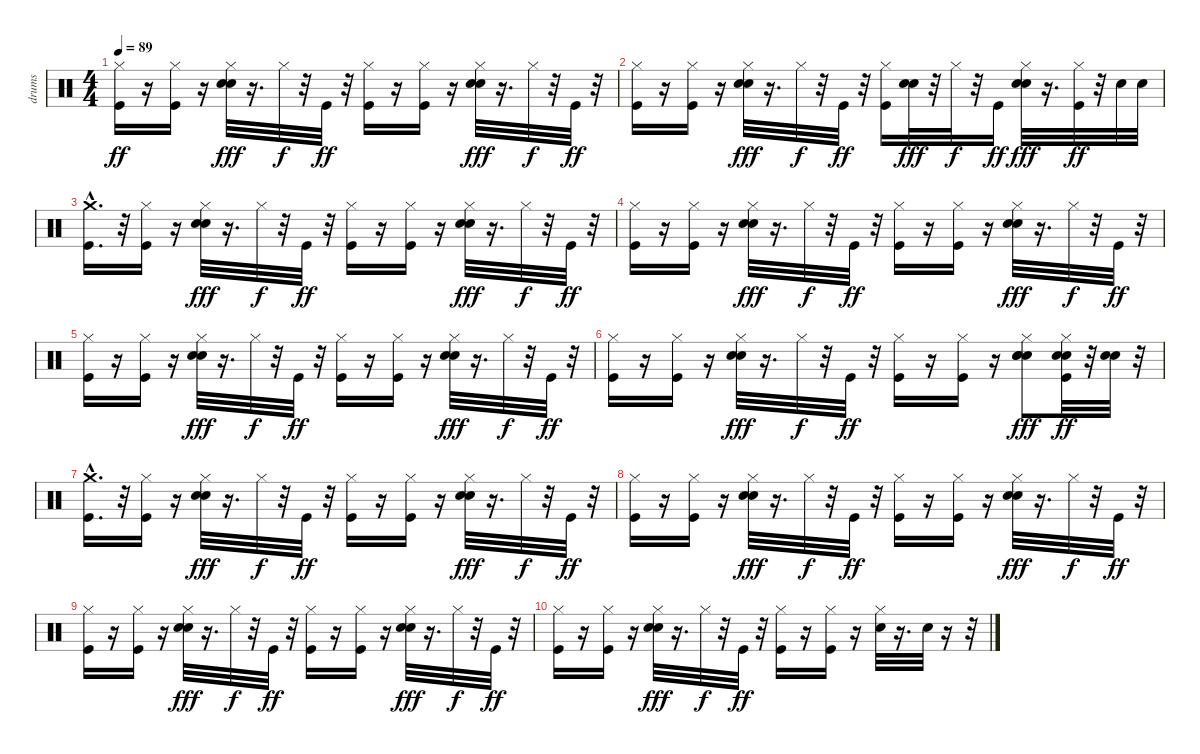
\track ("drums" "drums") {instrument percussion}
\staff {score}
\articulation defaults
\ts (4 4)
\tempo 89
\clef neutral
\ks c
("Kick (hit)" "Hi-Hat (closed)").16{dy ff} r.16 ("Hi-Hat (closed)" "Kick (hit)").16 r.16 ("Hi-Hat (closed)" "Electric Snare (hit)" "Hand Clap (hit)").32{dy fff} r.16{d} "Hi-Hat (closed)".32{dy f} r.32 "Kick (hit)".32{dy ff} r.32 ("Hi-Hat (closed)" "Kick (hit)").16 r.16 ("Hi-Hat (closed)" "Kick (hit)").16 r.16 ("Hi-Hat (closed)" "Electric Snare (hit)" "Hand Clap (hit)").32{dy fff} r.16{d} "Hi-Hat (closed)".32{dy f} r.32 "Kick (hit)".32{dy ff} r.32 |
("Kick (hit)" "Hi-Hat (closed)").16 r.16 ("Hi-Hat (closed)" "Kick (hit)").16 r.16 ("Hi-Hat (closed)" "Electric Snare (hit)" "Hand Clap (hit)").32{dy fff} r.16{d} "Hi-Hat (closed)".32{dy f} r.32 "Kick (hit)".32{dy ff} r.32 ("Hi-Hat (closed)" "Kick (hit)").16 ("Electric Snare (hit)" "Hand Clap (hit)").32{dy fff} r.32 "Hi-Hat (closed)".32{dy f} r.32 "Kick (hit)".16{dy ff} ("Hi-Hat (closed)" "Electric Snare (hit)" "Hand Clap (hit)").32{dy fff} r.16{d} ("Hi-Hat (closed)" "Kick (hit)").32{dy ff} r.32 "Hand Clap (hit)".32 "Hand Clap (hit)".32 |
("Crash medium (hit)"{hac} "Kick (hit)").16{d} r.32 ("Hi-Hat (closed)" "Kick (hit)").16 r.16 ("Hi-Hat (closed)" "Electric Snare (hit)" "Hand Clap (hit)").32{dy fff} r.16{d} "Hi-Hat (closed)".32{dy f} r.32 "Kick (hit)".32{dy ff} r.32 ("Hi-Hat (closed)" "Kick (hit)").16 r.16 ("Hi-Hat (closed)" "Kick (hit)").16 r.16 ("Hi-Hat (closed)" "Electric Snare (hit)" "Hand Clap (hit)").32{dy fff} r.16{d} "Hi-Hat (closed)".32{dy f} r.32 "Kick (hit)".32{dy ff} r.32 |
("Kick (hit)" "Hi-Hat (closed)").16 r.16 ("Hi-Hat (closed)" "Kick (hit)").16 r.16 ("Hi-Hat (closed)" "Electric Snare (hit)" "Hand Clap (hit)").32{dy fff} r.16{d} "Hi-Hat (closed)".32{dy f} r.32 "Kick (hit)".32{dy ff} r.32 ("Hi-Hat (closed)" "Kick (hit)").16 r.16 ("Hi-Hat (closed)" "Kick (hit)").16 r.16 ("Hi-Hat (closed)" "Electric Snare (hit)" "Hand Clap (hit)").32{dy fff} r.16{d} "Hi-Hat (closed)".32{dy f} r.32 "Kick (hit)".32{dy ff} r.32 |
("Kick (hit)" "Hi-Hat (closed)").16 r.16 ("Hi-Hat (closed)" "Kick (hit)").16 r.16 ("Hi-Hat (closed)" "Electric Snare (hit)" "Hand Clap (hit)").32{dy fff} r.16{d} "Hi-Hat (closed)".32{dy f} r.32 "Kick (hit)".32{dy ff} r.32 ("Hi-Hat (closed)" "Kick (hit)").16 r.16 ("Hi-Hat (closed)" "Kick (hit)").16 r.16 ("Hi-Hat (closed)" "Electric Snare (hit)" "Hand Clap (hit)").32{dy fff} r.16{d} "Hi-Hat (closed)".32{dy f} r.32 "Kick (hit)".32{dy ff} r.32 |
("Kick (hit)" "Hi-Hat (closed)").16 r.16 ("Hi-Hat (closed)" "Kick (hit)").16 r.16 ("Hi-Hat (closed)" "Electric Snare (hit)" "Hand Clap (hit)").32{dy fff} r.16{d} "Hi-Hat (closed)".32{dy f} r.32 "Kick (hit)".32{dy ff} r.32 ("Hi-Hat (closed)" "Kick (hit)").16 r.16 ("Hi-Hat (closed)" "Kick (hit)").16 r.16 ("Electric Snare (hit)" "Hi-Hat (closed)" "Hand Clap (hit)" "Electric Snare (hit)").8{dy fff} ("Hi-Hat (closed)" "Kick (hit)" "Hand Clap (hit)" "Electric Snare (hit)").32{dy ff} r.32 ("Hand Clap (hit)" "Electric Snare (hit)").32 r.32 |
("Crash medium (hit)"{hac} "Kick (hit)").16{d} r.32 ("Hi-Hat (closed)" "Kick (hit)").16 r.16 ("Hi-Hat (closed)" "Electric Snare (hit)" "Hand Clap (hit)").32{dy fff} r.16{d} "Hi-Hat (closed)".32{dy f} r.32 "Kick (hit)".32{dy ff} r.32 ("Hi-Hat (closed)" "Kick (hit)").16 r.16 ("Hi-Hat (closed)" "Kick (hit)").16 r.16 ("Hi-Hat (closed)" "Electric Snare (hit)" "Hand Clap (hit)").32{dy fff} r.16{d} "Hi-Hat (closed)".32{dy f} r.32 "Kick (hit)".32{dy ff} r.32 |
("Kick (hit)" "Hi-Hat (closed)").16 r.16 ("Hi-Hat (closed)" "Kick (hit)").16 r.16 ("Hi-Hat (closed)" "Electric Snare (hit)" "Hand Clap (hit)").32{dy fff} r.16{d} "Hi-Hat (closed)".32{dy f} r.32 "Kick (hit)".32{dy ff} r.32 ("Hi-Hat (closed)" "Kick (hit)").16 r.16 ("Hi-Hat (closed)" "Kick (hit)").16 r.16 ("Hi-Hat (closed)" "Electric Snare (hit)" "Hand Clap (hit)").32{dy fff} r.16{d} "Hi-Hat (closed)".32{dy f} r.32 "Kick (hit)".32{dy ff} r.32 |
("Kick (hit)" "Hi-Hat (closed)").16 r.16 ("Hi-Hat (closed)" "Kick (hit)").16 r.16 ("Hi-Hat (closed)" "Electric Snare (hit)" "Hand Clap (hit)").32{dy fff} r.16{d} "Hi-Hat (closed)".32{dy f} r.32 "Kick (hit)".32{dy ff} r.32 ("Hi-Hat (closed)" "Kick (hit)").16 r.16 ("Hi-Hat (closed)" "Kick (hit)").16 r.16 ("Hi-Hat (closed)" "Electric Snare (hit)" "Hand Clap (hit)").32{dy fff} r.16{d} "Hi-Hat (closed)".32{dy f} r.32 "Kick (hit)".32{dy ff} r.32 |
("Kick (hit)" "Hi-Hat (closed)").16 r.16 ("Kick (hit)" "Hi-Hat (closed)").16 r.16 ("Electric Snare (hit)" "Hand Clap (hit)" "Hi-Hat (closed)").32{dy fff} r.16{d} "Hi-Hat (closed)".32{dy f} r.32 "Kick (hit)".32{dy ff} r.32 ("Kick (hit)" "Hi-Hat (closed)").16 r.16 ("Kick (hit)" "Hi-Hat (closed)").16 r.16 ("Electric Snare (hit)" "Hi-Hat (closed)").32 r.16{d} "Electric Snare (hit)".32 r.16 r.32
